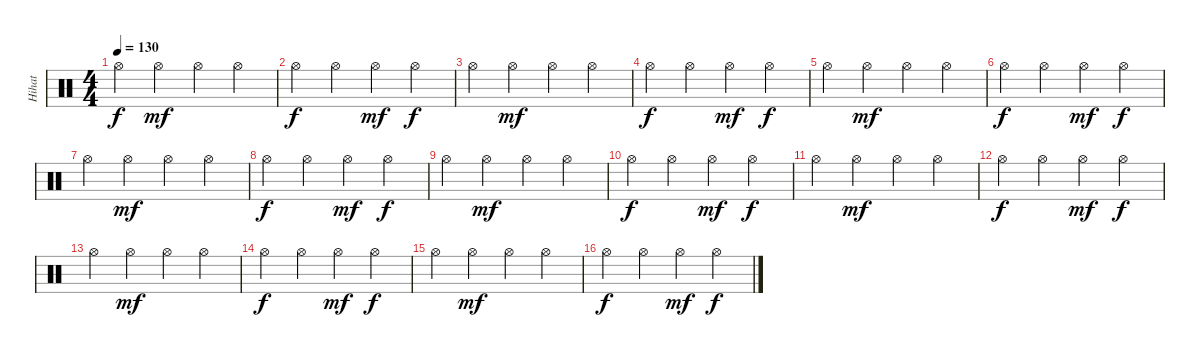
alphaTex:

\track ("Hihat" "Hihat") {instrument percussion}
\staff {score}
\articulation defaults
\ts (4 4)
\tempo 130
\clef neutral
\ks c "Hi-Hat (open)".4{dy f} "Hi-Hat (open)".4{dy mf} "Hi-Hat (open)".4 "Hi-Hat (open)".4
|
"Hi-Hat (open)".4{dy f} "Hi-Hat (open)".4 "Hi-Hat (open)".4{dy mf} "Hi-Hat (open)".4{dy f} |
"Hi-Hat (open)".4 "Hi-Hat (open)".4{dy mf} "Hi-Hat (open)".4 "Hi-Hat (open)".4 |
"Hi-Hat (open)".4{dy f} "Hi-Hat (open)".4 "Hi-Hat (open)".4{dy mf} "Hi-Hat (open)".4{dy f} |
"Hi-Hat (open)".4 "Hi-Hat (open)".4{dy mf} "Hi-Hat (open)".4 "Hi-Hat (open)".4 |
"Hi-Hat (open)".4{dy f} "Hi-Hat (open)".4 "Hi-Hat (open)".4{dy mf} "Hi-Hat (open)".4{dy f} |
"Hi-Hat (open)".4 "Hi-Hat (open)".4{dy mf} "Hi-Hat (open)".4 "Hi-Hat (open)".4 |
"Hi-Hat (open)".4{dy f} "Hi-Hat (open)".4 "Hi-Hat (open)".4{dy mf} "Hi-Hat (open)".4{dy f} |
"Hi-Hat (open)".4 "Hi-Hat (open)".4{dy mf} "Hi-Hat (open)".4 "Hi-Hat (open)".4 |
"Hi-Hat (open)".4{dy f} "Hi-Hat (open)".4 "Hi-Hat (open)".4{dy mf} "Hi-Hat (open)".4{dy f} |
"Hi-Hat (open)".4 "Hi-Hat (open)".4{dy mf} "Hi-Hat (open)".4 "Hi-Hat (open)".4 |
"Hi-Hat (open)".4{dy f} "Hi-Hat (open)".4 "Hi-Hat (open)".4{dy mf} "Hi-Hat (open)".4{dy f} |
"Hi-Hat (open)".4 "Hi-Hat (open)".4{dy mf} "Hi-Hat (open)".4 "Hi-Hat (open)".4 |
"Hi-Hat (open)".4{dy f} "Hi-Hat (open)".4 "Hi-Hat (open)".4{dy mf} "Hi-Hat (open)".4{dy f} |
"Hi-Hat (open)".4 "Hi-Hat (open)".4{dy mf} "Hi-Hat (open)".4 "Hi-Hat (open)".4 |
"Hi-Hat (open)".4{dy f} "Hi-Hat (open)".4 "Hi-Hat (open)".4{dy mf} "Hi-Hat (open)".4{dy f}
